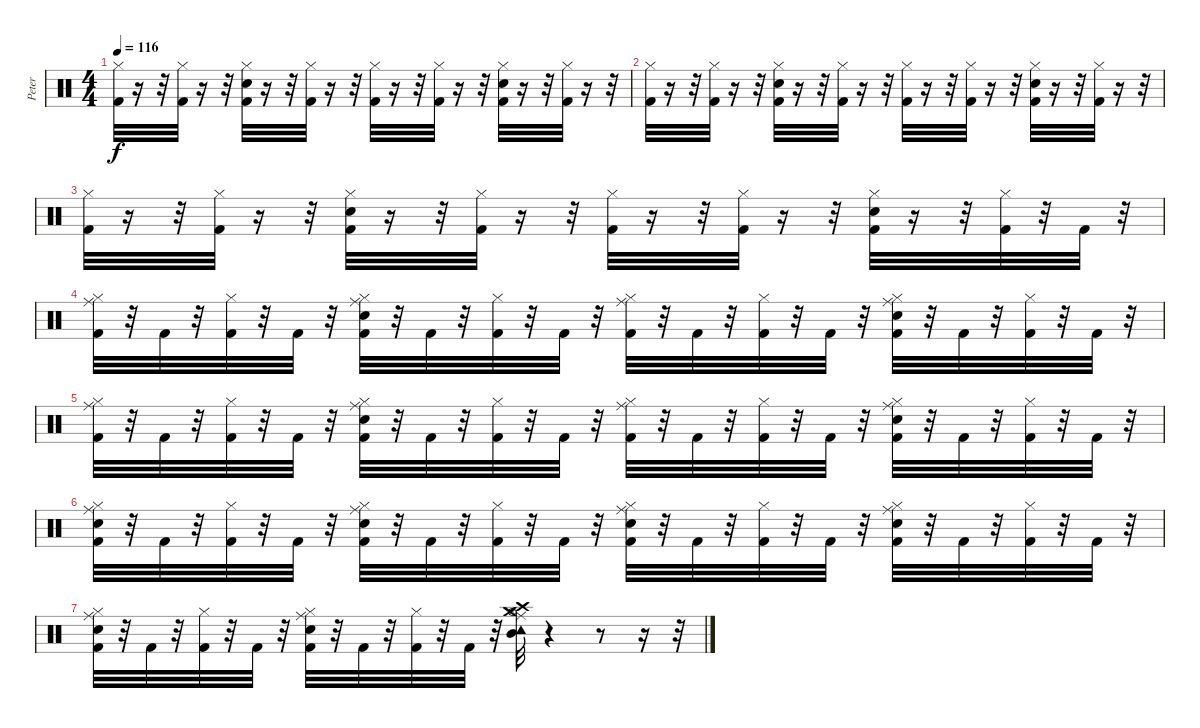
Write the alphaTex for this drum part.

\track ("Peter" "Peter") {instrument percussion}
\staff {score}
\articulation defaults
\ts (4 4)
\tempo 116
\clef neutral
\ks c
("Hi-Hat (closed)" "Kick (hit) 2").32{dy f} r.16 r.32 ("Hi-Hat (closed)" "Kick (hit) 2").32 r.16 r.32 ("Snare (hit) 2" "Hi-Hat (closed)" "Kick (hit) 2").32 r.16 r.32 ("Hi-Hat (closed)" "Kick (hit) 2").32 r.16 r.32 ("Hi-Hat (closed)" "Kick (hit) 2").32 r.16 r.32 ("Hi-Hat (closed)" "Kick (hit) 2").32 r.16 r.32 ("Snare (hit) 2" "Hi-Hat (closed)" "Kick (hit) 2").32 r.16 r.32 ("Hi-Hat (closed)" "Kick (hit) 2").32 r.16 r.32 |
("Hi-Hat (closed)" "Kick (hit) 2").32 r.16 r.32 ("Hi-Hat (closed)" "Kick (hit) 2").32 r.16 r.32 ("Snare (hit) 2" "Hi-Hat (closed)" "Kick (hit) 2").32 r.16 r.32 ("Hi-Hat (closed)" "Kick (hit) 2").32 r.16 r.32 ("Hi-Hat (closed)" "Kick (hit) 2").32 r.16 r.32 ("Hi-Hat (closed)" "Kick (hit) 2").32 r.16 r.32 ("Snare (hit) 2" "Hi-Hat (closed)" "Kick (hit) 2").32 r.16 r.32 ("Hi-Hat (closed)" "Kick (hit) 2").32 r.16 r.32 |
("Hi-Hat (closed)" "Kick (hit) 2").32 r.16 r.32 ("Hi-Hat (closed)" "Kick (hit) 2").32 r.16 r.32 ("Snare (hit) 2" "Hi-Hat (closed)" "Kick (hit) 2").32 r.16 r.32 ("Hi-Hat (closed)" "Kick (hit) 2").32 r.16 r.32 ("Hi-Hat (closed)" "Kick (hit) 2").32 r.16 r.32 ("Hi-Hat (closed)" "Kick (hit) 2").32 r.16 r.32 ("Snare (hit) 2" "Hi-Hat (closed)" "Kick (hit) 2").32 r.16 r.32 ("Hi-Hat (closed)" "Kick (hit) 2").32 r.32 "Kick (hit) 2".32 r.32 |
("Ride (middle)" "Hi-Hat (closed)" "Kick (hit) 2").32 r.32 "Kick (hit) 2".32 r.32 ("Hi-Hat (closed)" "Kick (hit) 2").32 r.32 "Kick (hit) 2".32 r.32 ("Ride (middle)" "Snare (hit) 2" "Hi-Hat (closed)" "Kick (hit) 2").32 r.32 "Kick (hit) 2".32 r.32 ("Hi-Hat (closed)" "Kick (hit) 2").32 r.32 "Kick (hit) 2".32 r.32 ("Ride (middle)" "Kick (hit) 2" "Hi-Hat (closed)").32 r.32 "Kick (hit) 2".32 r.32 ("Hi-Hat (closed)" "Kick (hit) 2").32 r.32 "Kick (hit) 2".32 r.32 ("Ride (middle)" "Snare (hit) 2" "Hi-Hat (closed)" "Kick (hit) 2").32 r.32 "Kick (hit) 2".32 r.32 ("Kick (hit) 2" "Hi-Hat (closed)").32 r.32 "Kick (hit) 2".32 r.32 |
("Ride (middle)" "Hi-Hat (closed)" "Kick (hit) 2").32 r.32 "Kick (hit) 2".32 r.32 ("Hi-Hat (closed)" "Kick (hit) 2").32 r.32 "Kick (hit) 2".32 r.32 ("Ride (middle)" "Snare (hit) 2" "Hi-Hat (closed)" "Kick (hit) 2").32 r.32 "Kick (hit) 2".32 r.32 ("Hi-Hat (closed)" "Kick (hit) 2").32 r.32 "Kick (hit) 2".32 r.32 ("Ride (middle)" "Hi-Hat (closed)" "Kick (hit) 2").32 r.32 "Kick (hit) 2".32 r.32 ("Hi-Hat (closed)" "Kick (hit) 2").32 r.32 "Kick (hit) 2".32 r.32 ("Ride (middle)" "Snare (hit) 2" "Hi-Hat (closed)" "Kick (hit) 2").32 r.32 "Kick (hit) 2".32 r.32 ("Hi-Hat (closed)" "Kick (hit) 2").32 r.32 "Kick (hit) 2".32 r.32 |
("Ride (middle)" "Snare (hit) 2" "Hi-Hat (closed)" "Kick (hit) 2").32 r.32 "Kick (hit) 2".32 r.32 ("Hi-Hat (closed)" "Kick (hit) 2").32 r.32 "Kick (hit) 2".32 r.32 ("Ride (middle)" "Kick (hit) 2" "Snare (hit) 2" "Hi-Hat (closed)").32 r.32 "Kick (hit) 2".32 r.32 ("Hi-Hat (closed)" "Kick (hit) 2").32 r.32 "Kick (hit) 2".32 r.32 ("Ride (middle)" "Snare (hit) 2" "Hi-Hat (closed)" "Kick (hit) 2").32 r.32 "Kick (hit) 2".32 r.32 ("Hi-Hat (closed)" "Kick (hit) 2").32 r.32 "Kick (hit) 2".32 r.32 ("Ride (middle)" "Snare (hit) 2" "Hi-Hat (closed)" "Kick (hit) 2").32 r.32 "Kick (hit) 2".32 r.32 ("Hi-Hat (closed)" "Kick (hit) 2").32 r.32 "Kick (hit) 2".32 r.32 |
("Ride (middle)" "Snare (hit) 2" "Hi-Hat (closed)" "Kick (hit) 2").32 r.32 "Kick (hit) 2".32 r.32 ("Hi-Hat (closed)" "Kick (hit) 2").32 r.32 "Kick (hit) 2".32 r.32 ("Ride (middle)" "Snare (hit) 2" "Hi-Hat (closed)" "Kick (hit) 2").32 r.32 "Kick (hit) 2".32 r.32 ("Hi-Hat (closed)" "Kick (hit) 2").32 r.32 "Kick (hit) 2".32 r.32 ("Tambourine (hit)" "Crash medium (hit)" "Mid Tom (hit)" "Hi-Hat (open)" "Crash high (hit)" "Ride (middle)").32 r.4 r.8 r.16 r.32
